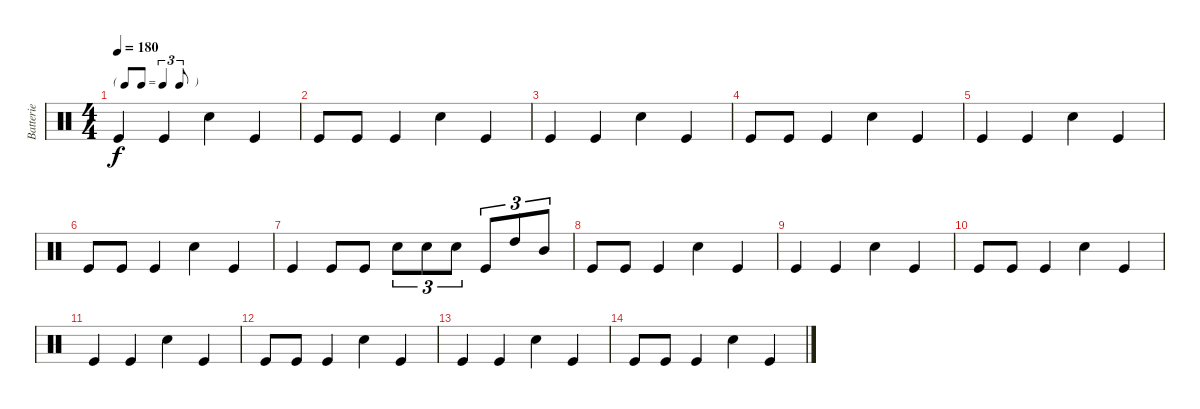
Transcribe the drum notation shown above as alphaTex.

\track ("Batterie" "Batterie") {instrument percussion}
\staff {score}
\articulation defaults
\ts (4 4)
\tf triplet8th
\tempo 180
\clef neutral
\ks c "Kick (hit)".4{dy f} "Kick (hit)".4 "Electric Snare (hit)".4 "Kick (hit)".4
|
"Kick (hit)".8 "Kick (hit)".8 "Kick (hit)".4 "Electric Snare (hit)".4 "Kick (hit)".4 |
"Kick (hit)".4 "Kick (hit)".4 "Electric Snare (hit)".4 "Kick (hit)".4 |
"Kick (hit)".8 "Kick (hit)".8 "Kick (hit)".4 "Electric Snare (hit)".4 "Kick (hit)".4 |
"Kick (hit)".4 "Kick (hit)".4 "Electric Snare (hit)".4 "Kick (hit)".4 |
"Kick (hit)".8 "Kick (hit)".8 "Kick (hit)".4 "Electric Snare (hit)".4 "Kick (hit)".4 |
"Kick (hit)".4 "Kick (hit)".8 "Kick (hit)".8 "Electric Snare (hit)".8{tu (3 2)} "Electric Snare (hit)".8{tu (3 2)} "Electric Snare (hit)".8{tu (3 2)} "Kick (hit)".8{tu (3 2)} "High Tom (hit)".8{tu (3 2)} "Mid Tom (hit)".8{tu (3 2)} |
"Kick (hit)".8 "Kick (hit)".8 "Kick (hit)".4 "Electric Snare (hit)".4 "Kick (hit)".4 |
"Kick (hit)".4 "Kick (hit)".4 "Electric Snare (hit)".4 "Kick (hit)".4 |
"Kick (hit)".8 "Kick (hit)".8 "Kick (hit)".4 "Electric Snare (hit)".4 "Kick (hit)".4 |
"Kick (hit)".4 "Kick (hit)".4 "Electric Snare (hit)".4 "Kick (hit)".4 |
"Kick (hit)".8 "Kick (hit)".8 "Kick (hit)".4 "Electric Snare (hit)".4 "Kick (hit)".4 |
"Kick (hit)".4 "Kick (hit)".4 "Electric Snare (hit)".4 "Kick (hit)".4 |
"Kick (hit)".8 "Kick (hit)".8 "Kick (hit)".4 "Electric Snare (hit)".4 "Kick (hit)".4
